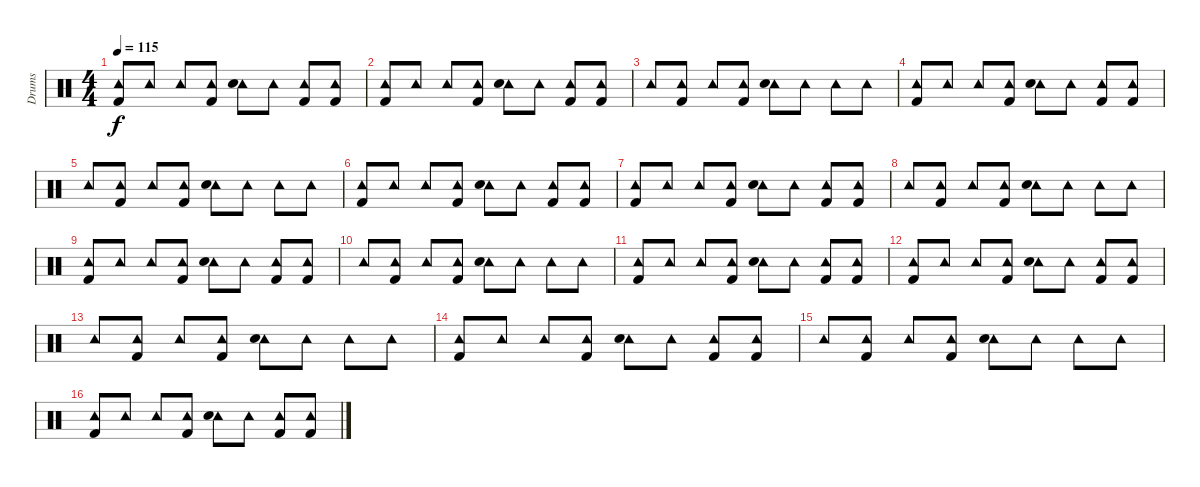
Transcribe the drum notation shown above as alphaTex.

\track ("Drums" "Drums") {instrument percussion}
\staff {score}
\articulation defaults
\ts (4 4)
\tempo 115
\clef neutral
\ks c
("Tambourine (hit)" "Kick (hit) 2").8{dy f} "Tambourine (hit)".8 "Tambourine (hit)".8 ("Tambourine (hit)" "Kick (hit) 2").8 ("Tambourine (hit)" "Snare (hit) 2").8 "Tambourine (hit)".8 ("Tambourine (hit)" "Kick (hit) 2").8 ("Tambourine (hit)" "Kick (hit) 2").8 |
("Tambourine (hit)" "Kick (hit) 2").8 "Tambourine (hit)".8 "Tambourine (hit)".8 ("Tambourine (hit)" "Kick (hit) 2").8 ("Tambourine (hit)" "Snare (hit) 2").8 "Tambourine (hit)".8 ("Tambourine (hit)" "Kick (hit) 2").8 ("Tambourine (hit)" "Kick (hit) 2").8 |
"Tambourine (hit)".8 ("Tambourine (hit)" "Kick (hit) 2").8 "Tambourine (hit)".8 ("Tambourine (hit)" "Kick (hit) 2").8 ("Tambourine (hit)" "Snare (hit) 2").8 "Tambourine (hit)".8 "Tambourine (hit)".8 "Tambourine (hit)".8 |
("Tambourine (hit)" "Kick (hit) 2").8 "Tambourine (hit)".8 "Tambourine (hit)".8 ("Tambourine (hit)" "Kick (hit) 2").8 ("Tambourine (hit)" "Snare (hit) 2").8 "Tambourine (hit)".8 ("Tambourine (hit)" "Kick (hit) 2").8 ("Tambourine (hit)" "Kick (hit) 2").8 |
"Tambourine (hit)".8 ("Tambourine (hit)" "Kick (hit) 2").8 "Tambourine (hit)".8 ("Tambourine (hit)" "Kick (hit) 2").8 ("Tambourine (hit)" "Snare (hit) 2").8 "Tambourine (hit)".8 "Tambourine (hit)".8 "Tambourine (hit)".8 |
("Tambourine (hit)" "Kick (hit) 2").8 "Tambourine (hit)".8 "Tambourine (hit)".8 ("Tambourine (hit)" "Kick (hit) 2").8 ("Tambourine (hit)" "Snare (hit) 2").8 "Tambourine (hit)".8 ("Tambourine (hit)" "Kick (hit) 2").8 ("Tambourine (hit)" "Kick (hit) 2").8 |
("Tambourine (hit)" "Kick (hit) 2").8 "Tambourine (hit)".8 "Tambourine (hit)".8 ("Tambourine (hit)" "Kick (hit) 2").8 ("Tambourine (hit)" "Snare (hit) 2").8 "Tambourine (hit)".8 ("Tambourine (hit)" "Kick (hit) 2").8 ("Tambourine (hit)" "Kick (hit) 2").8 |
"Tambourine (hit)".8 ("Tambourine (hit)" "Kick (hit) 2").8 "Tambourine (hit)".8 ("Tambourine (hit)" "Kick (hit) 2").8 ("Tambourine (hit)" "Snare (hit) 2").8 "Tambourine (hit)".8 "Tambourine (hit)".8 "Tambourine (hit)".8 |
("Tambourine (hit)" "Kick (hit) 2").8 "Tambourine (hit)".8 "Tambourine (hit)".8 ("Tambourine (hit)" "Kick (hit) 2").8 ("Tambourine (hit)" "Snare (hit) 2").8 "Tambourine (hit)".8 ("Tambourine (hit)" "Kick (hit) 2").8 ("Tambourine (hit)" "Kick (hit) 2").8 |
"Tambourine (hit)".8 ("Tambourine (hit)" "Kick (hit) 2").8 "Tambourine (hit)".8 ("Tambourine (hit)" "Kick (hit) 2").8 ("Tambourine (hit)" "Snare (hit) 2").8 "Tambourine (hit)".8 "Tambourine (hit)".8 "Tambourine (hit)".8 |
("Tambourine (hit)" "Kick (hit) 2").8 "Tambourine (hit)".8 "Tambourine (hit)".8 ("Tambourine (hit)" "Kick (hit) 2").8 ("Tambourine (hit)" "Snare (hit) 2").8 "Tambourine (hit)".8 ("Tambourine (hit)" "Kick (hit) 2").8 ("Tambourine (hit)" "Kick (hit) 2").8 |
("Tambourine (hit)" "Kick (hit) 2").8 "Tambourine (hit)".8 "Tambourine (hit)".8 ("Tambourine (hit)" "Kick (hit) 2").8 ("Tambourine (hit)" "Snare (hit) 2").8 "Tambourine (hit)".8 ("Tambourine (hit)" "Kick (hit) 2").8 ("Tambourine (hit)" "Kick (hit) 2").8 |
"Tambourine (hit)".8 ("Tambourine (hit)" "Kick (hit) 2").8 "Tambourine (hit)".8 ("Tambourine (hit)" "Kick (hit) 2").8 ("Tambourine (hit)" "Snare (hit) 2").8 "Tambourine (hit)".8 "Tambourine (hit)".8 "Tambourine (hit)".8 |
("Tambourine (hit)" "Kick (hit) 2").8 "Tambourine (hit)".8 "Tambourine (hit)".8 ("Tambourine (hit)" "Kick (hit) 2").8 ("Tambourine (hit)" "Snare (hit) 2").8 "Tambourine (hit)".8 ("Tambourine (hit)" "Kick (hit) 2").8 ("Tambourine (hit)" "Kick (hit) 2").8 |
"Tambourine (hit)".8 ("Tambourine (hit)" "Kick (hit) 2").8 "Tambourine (hit)".8 ("Tambourine (hit)" "Kick (hit) 2").8 ("Tambourine (hit)" "Snare (hit) 2").8 "Tambourine (hit)".8 "Tambourine (hit)".8 "Tambourine (hit)".8 |
("Tambourine (hit)" "Kick (hit) 2").8 "Tambourine (hit)".8 "Tambourine (hit)".8 ("Tambourine (hit)" "Kick (hit) 2").8 ("Tambourine (hit)" "Snare (hit) 2").8 "Tambourine (hit)".8 ("Tambourine (hit)" "Kick (hit) 2").8 ("Tambourine (hit)" "Kick (hit) 2").8
